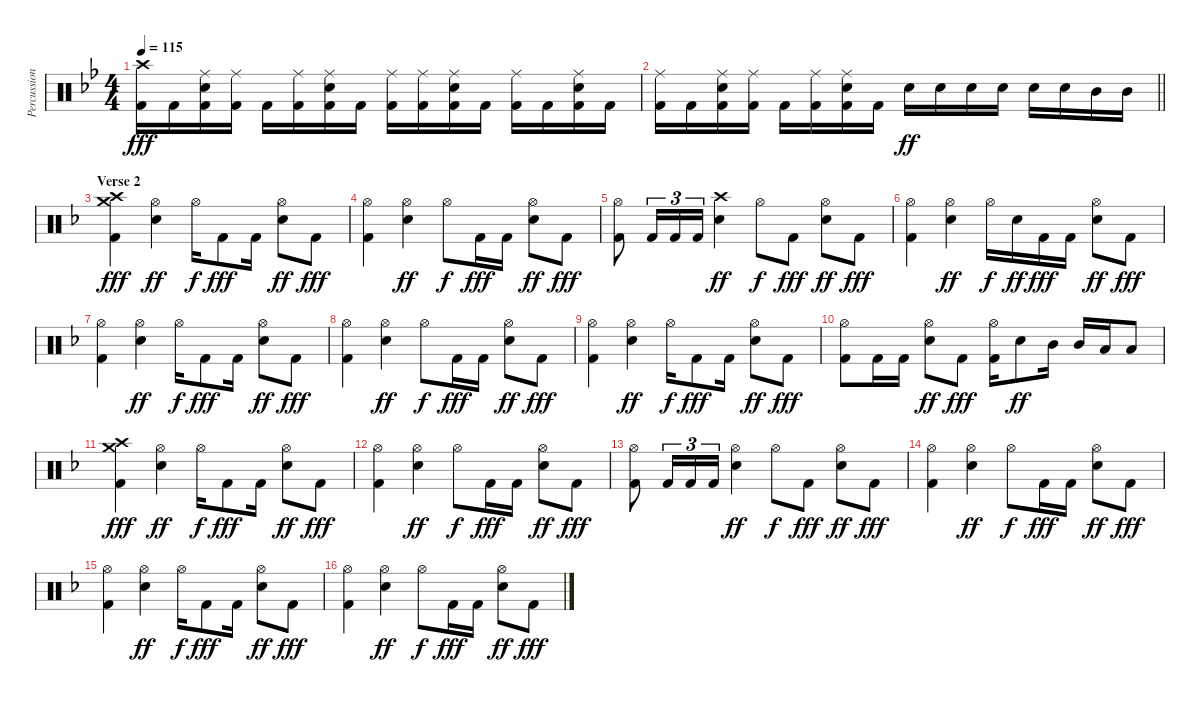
\track ("Percussion" "Percussion") {instrument percussion}
\staff {score}
\articulation defaults
\ts (4 4)
\tempo 115
\clef neutral
\ks gminor
("Crash high (hit)" "Kick (hit) 2").16{dy fff} "Kick (hit) 2".16 ("Ride (middle)" "Electric Snare (hit)" "Kick (hit) 2").16 ("Ride (middle)" "Kick (hit) 2").16 "Kick (hit) 2".16 ("Ride (middle)" "Kick (hit) 2").16 ("Ride (middle)" "Electric Snare (hit)" "Kick (hit) 2").16 "Kick (hit) 2".16 ("Ride (middle)" "Kick (hit) 2").16 ("Ride (middle)" "Kick (hit) 2").16 ("Ride (middle)" "Electric Snare (hit)" "Kick (hit) 2").16 "Kick (hit) 2".16 ("Ride (middle)" "Kick (hit) 2").16 "Kick (hit) 2".16 ("Ride (middle)" "Electric Snare (hit)" "Kick (hit) 2").16 "Kick (hit) 2".16 |
\barLineRight lightlight
("Ride (middle)" "Kick (hit) 2").16 "Kick (hit) 2".16 ("Ride (middle)" "Electric Snare (hit)" "Kick (hit) 2").16 ("Ride (middle)" "Kick (hit) 2").16 "Kick (hit) 2".16 ("Ride (middle)" "Kick (hit) 2").16 ("Ride (middle)" "Electric Snare (hit)" "Kick (hit) 2").16 "Kick (hit) 2".16 "Electric Snare (hit)".16{dy ff} "Electric Snare (hit)".16 "Electric Snare (hit)".16 "Electric Snare (hit)".16 "Electric Snare (hit)".16 "Electric Snare (hit)".16 "Mid Tom (hit)".16 "Mid Tom (hit)".16 |
\section ("" "Verse 2")
\ks dminor
("Crash high (hit)" "Crash medium (hit)" "Kick (hit) 2").4{dy fff} ("Hi-Hat (open)" "Electric Snare (hit)").4{dy ff} "Hi-Hat (open)".16{dy f} "Kick (hit) 2".8{dy fff} "Kick (hit) 2".16 ("Hi-Hat (open)" "Electric Snare (hit)").8{dy ff} "Kick (hit) 2".8{dy fff} |
("Hi-Hat (open)" "Kick (hit) 2").4 ("Hi-Hat (open)" "Electric Snare (hit)").4{dy ff} "Hi-Hat (open)".8{dy f} "Kick (hit) 2".16{dy fff} "Kick (hit) 2".16 ("Hi-Hat (open)" "Electric Snare (hit)").8{dy ff} "Kick (hit) 2".8{dy fff} |
("Hi-Hat (open)" "Kick (hit) 2").8 "Kick (hit) 2".16{tu (3 2)} "Kick (hit) 2".16{tu (3 2)} "Kick (hit) 2".16{tu (3 2)} ("Crash high (hit)" "Electric Snare (hit)").4{dy ff} "Hi-Hat (open)".8{dy f} "Kick (hit) 2".8{dy fff} ("Hi-Hat (open)" "Electric Snare (hit)").8{dy ff} "Kick (hit) 2".8{dy fff} |
("Hi-Hat (open)" "Kick (hit) 2").4 ("Hi-Hat (open)" "Electric Snare (hit)").4{dy ff} "Hi-Hat (open)".16{dy f} "Electric Snare (hit)".16{dy ff} "Kick (hit) 2".16{dy fff} "Kick (hit) 2".16 ("Hi-Hat (open)" "Electric Snare (hit)").8{dy ff} "Kick (hit) 2".8{dy fff} |
("Hi-Hat (open)" "Kick (hit) 2").4 ("Hi-Hat (open)" "Electric Snare (hit)").4{dy ff} "Hi-Hat (open)".16{dy f} "Kick (hit) 2".8{dy fff} "Kick (hit) 2".16 ("Hi-Hat (open)" "Electric Snare (hit)").8{dy ff} "Kick (hit) 2".8{dy fff} |
("Hi-Hat (open)" "Kick (hit) 2").4 ("Hi-Hat (open)" "Electric Snare (hit)").4{dy ff} "Hi-Hat (open)".8{dy f} "Kick (hit) 2".16{dy fff} "Kick (hit) 2".16 ("Hi-Hat (open)" "Electric Snare (hit)").8{dy ff} "Kick (hit) 2".8{dy fff} |
("Hi-Hat (open)" "Kick (hit) 2").4 ("Hi-Hat (open)" "Electric Snare (hit)").4{dy ff} "Hi-Hat (open)".16{dy f} "Kick (hit) 2".8{dy fff} "Kick (hit) 2".16 ("Hi-Hat (open)" "Electric Snare (hit)").8{dy ff} "Kick (hit) 2".8{dy fff} |
("Hi-Hat (open)" "Kick (hit) 2").8 "Kick (hit) 2".16 "Kick (hit) 2".16 ("Hi-Hat (open)" "Electric Snare (hit)").8{dy ff} "Kick (hit) 2".8{dy fff} ("Hi-Hat (open)" "Kick (hit) 2").16 "Electric Snare (hit)".8{dy ff} "Mid Tom (hit)".16 "Mid Tom (hit)".16 "Low Tom (hit)".16 "Low Tom (hit)".8 |
("Crash high (hit)" "Crash medium (hit)" "Kick (hit) 2").4{dy fff} ("Hi-Hat (open)" "Electric Snare (hit)").4{dy ff} "Hi-Hat (open)".16{dy f} "Kick (hit) 2".8{dy fff} "Kick (hit) 2".16 ("Hi-Hat (open)" "Electric Snare (hit)").8{dy ff} "Kick (hit) 2".8{dy fff} |
("Hi-Hat (open)" "Kick (hit) 2").4 ("Hi-Hat (open)" "Electric Snare (hit)").4{dy ff} "Hi-Hat (open)".8{dy f} "Kick (hit) 2".16{dy fff} "Kick (hit) 2".16 ("Hi-Hat (open)" "Electric Snare (hit)").8{dy ff} "Kick (hit) 2".8{dy fff} |
("Hi-Hat (open)" "Kick (hit) 2").8 "Kick (hit) 2".16{tu (3 2)} "Kick (hit) 2".16{tu (3 2)} "Kick (hit) 2".16{tu (3 2)} ("Hi-Hat (open)" "Electric Snare (hit)").4{dy ff} "Hi-Hat (open)".8{dy f} "Kick (hit) 2".8{dy fff} ("Hi-Hat (open)" "Electric Snare (hit)").8{dy ff} "Kick (hit) 2".8{dy fff} |
("Hi-Hat (open)" "Kick (hit) 2").4 ("Hi-Hat (open)" "Electric Snare (hit)").4{dy ff} "Hi-Hat (open)".8{dy f} "Kick (hit) 2".16{dy fff} "Kick (hit) 2".16 ("Hi-Hat (open)" "Electric Snare (hit)").8{dy ff} "Kick (hit) 2".8{dy fff} |
("Hi-Hat (open)" "Kick (hit) 2").4 ("Hi-Hat (open)" "Electric Snare (hit)").4{dy ff} "Hi-Hat (open)".16{dy f} "Kick (hit) 2".8{dy fff} "Kick (hit) 2".16 ("Hi-Hat (open)" "Electric Snare (hit)").8{dy ff} "Kick (hit) 2".8{dy fff} |
("Hi-Hat (open)" "Kick (hit) 2").4 ("Hi-Hat (open)" "Electric Snare (hit)").4{dy ff} "Hi-Hat (open)".8{dy f} "Kick (hit) 2".16{dy fff} "Kick (hit) 2".16 ("Hi-Hat (open)" "Electric Snare (hit)").8{dy ff} "Kick (hit) 2".8{dy fff}
